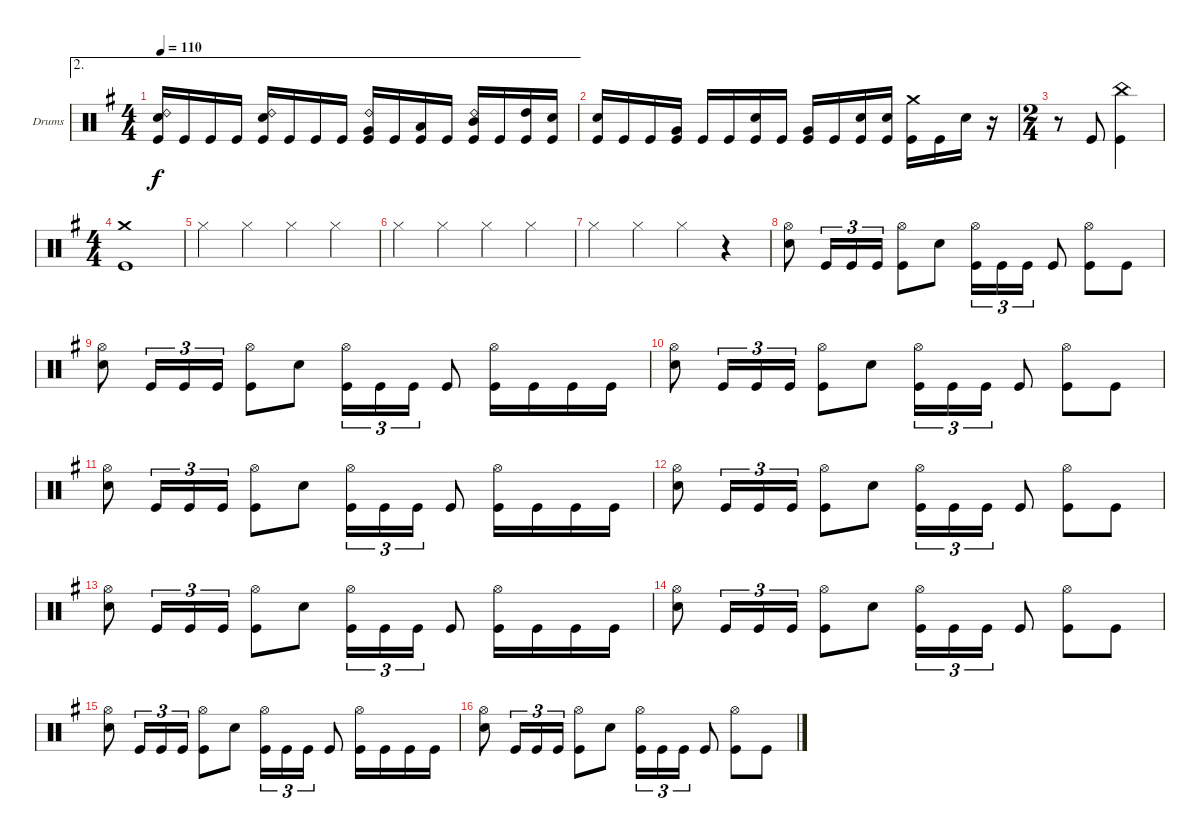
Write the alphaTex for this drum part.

\bracketExtendMode groupsimilarinstruments
\firstSystemTrackNameOrientation horizontal
\otherSystemsTrackNameOrientation horizontal
\track ("Drumkit" "Drums") {instrument percussion}
\staff {score}
\articulation defaults
\ae 2
\ts (4 4)
\tempo 110
\clef neutral
\ks g
("Ride (bell) 2" "Snare (hit) 2" "Kick (hit)").16{dy f} "Kick (hit)".16 "Kick (hit)".16 "Kick (hit)".16 ("Ride (bell) 2" "Snare (hit) 2" "Kick (hit)").16 "Kick (hit)".16 "Kick (hit)".16 "Kick (hit)".16 ("Ride (bell) 2" "Very Low Tom (hit)" "Kick (hit)").16 "Kick (hit)".16 ("Low Tom (hit)" "Kick (hit)").16 "Kick (hit)".16 ("Ride (bell) 2" "Mid Tom (hit)" "Kick (hit)").16 "Kick (hit)".16 ("High Tom (hit)" "Kick (hit)").16 ("Snare (hit) 2" "Kick (hit)").16 |
("Snare (hit) 2" "Kick (hit)").16 "Kick (hit)".16 "Kick (hit)".16 ("Very Low Tom (hit)" "Kick (hit)").16 "Kick (hit)".16 "Kick (hit)".16 ("Snare (hit) 2" "Kick (hit)").16 "Kick (hit)".16 ("Very Low Tom (hit)" "Kick (hit)").16 "Kick (hit)".16 ("Snare (hit) 2" "Kick (hit)").16 ("Snare (hit) 2" "Kick (hit)").16 ("Crash medium (hit)" "Kick (hit)").16 "Kick (hit)".16 "Snare (hit) 2".16 r.16 |
\ts (2 4)
\beaming (8 2 2)
r.8 "Kick (hit)".8 ("China (hit)" "Kick (hit)").4 |
\ts (4 4)
\beaming (8 2 2 2 2)
("Crash medium (hit)" "Kick (hit)").1 |
"Hi-Hat (closed)".4 "Hi-Hat (closed)".4 "Hi-Hat (closed)".4 "Hi-Hat (closed)".4 |
"Hi-Hat (closed)".4 "Hi-Hat (closed)".4 "Hi-Hat (closed)".4 "Hi-Hat (closed)".4 |
"Hi-Hat (closed)".4 "Hi-Hat (closed)".4 "Hi-Hat (closed)".4 r.4 |
("Hi-Hat (open)" "Snare (hit) 2").8 "Kick (hit)".16{tu (3 2)} "Kick (hit)".16{tu (3 2)} "Kick (hit)".16{tu (3 2)} ("Hi-Hat (open)" "Kick (hit)").8 "Snare (hit) 2".8 ("Hi-Hat (open)" "Kick (hit)").16{tu (3 2)} "Kick (hit)".16{tu (3 2)} "Kick (hit)".16{tu (3 2)} "Kick (hit)".8 ("Hi-Hat (open)" "Kick (hit)").8 "Kick (hit)".8 |
("Hi-Hat (open)" "Snare (hit) 2").8 "Kick (hit)".16{tu (3 2)} "Kick (hit)".16{tu (3 2)} "Kick (hit)".16{tu (3 2)} ("Hi-Hat (open)" "Kick (hit)").8 "Snare (hit) 2".8 ("Hi-Hat (open)" "Kick (hit)").16{tu (3 2)} "Kick (hit)".16{tu (3 2)} "Kick (hit)".16{tu (3 2)} "Kick (hit)".8 ("Hi-Hat (open)" "Kick (hit)").16 "Kick (hit)".16 "Kick (hit)".16 "Kick (hit)".16 |
("Hi-Hat (open)" "Snare (hit) 2").8 "Kick (hit)".16{tu (3 2)} "Kick (hit)".16{tu (3 2)} "Kick (hit)".16{tu (3 2)} ("Hi-Hat (open)" "Kick (hit)").8 "Snare (hit) 2".8 ("Hi-Hat (open)" "Kick (hit)").16{tu (3 2)} "Kick (hit)".16{tu (3 2)} "Kick (hit)".16{tu (3 2)} "Kick (hit)".8 ("Hi-Hat (open)" "Kick (hit)").8 "Kick (hit)".8 |
("Hi-Hat (open)" "Snare (hit) 2").8 "Kick (hit)".16{tu (3 2)} "Kick (hit)".16{tu (3 2)} "Kick (hit)".16{tu (3 2)} ("Hi-Hat (open)" "Kick (hit)").8 "Snare (hit) 2".8 ("Hi-Hat (open)" "Kick (hit)").16{tu (3 2)} "Kick (hit)".16{tu (3 2)} "Kick (hit)".16{tu (3 2)} "Kick (hit)".8 ("Hi-Hat (open)" "Kick (hit)").16 "Kick (hit)".16 "Kick (hit)".16 "Kick (hit)".16 |
("Hi-Hat (open)" "Snare (hit) 2").8 "Kick (hit)".16{tu (3 2)} "Kick (hit)".16{tu (3 2)} "Kick (hit)".16{tu (3 2)} ("Hi-Hat (open)" "Kick (hit)").8 "Snare (hit) 2".8 ("Hi-Hat (open)" "Kick (hit)").16{tu (3 2)} "Kick (hit)".16{tu (3 2)} "Kick (hit)".16{tu (3 2)} "Kick (hit)".8 ("Hi-Hat (open)" "Kick (hit)").8 "Kick (hit)".8 |
("Hi-Hat (open)" "Snare (hit) 2").8 "Kick (hit)".16{tu (3 2)} "Kick (hit)".16{tu (3 2)} "Kick (hit)".16{tu (3 2)} ("Hi-Hat (open)" "Kick (hit)").8 "Snare (hit) 2".8 ("Hi-Hat (open)" "Kick (hit)").16{tu (3 2)} "Kick (hit)".16{tu (3 2)} "Kick (hit)".16{tu (3 2)} "Kick (hit)".8 ("Hi-Hat (open)" "Kick (hit)").16 "Kick (hit)".16 "Kick (hit)".16 "Kick (hit)".16 |
("Hi-Hat (open)" "Snare (hit) 2").8 "Kick (hit)".16{tu (3 2)} "Kick (hit)".16{tu (3 2)} "Kick (hit)".16{tu (3 2)} ("Hi-Hat (open)" "Kick (hit)").8 "Snare (hit) 2".8 ("Hi-Hat (open)" "Kick (hit)").16{tu (3 2)} "Kick (hit)".16{tu (3 2)} "Kick (hit)".16{tu (3 2)} "Kick (hit)".8 ("Hi-Hat (open)" "Kick (hit)").8 "Kick (hit)".8 |
("Hi-Hat (open)" "Snare (hit) 2").8 "Kick (hit)".16{tu (3 2)} "Kick (hit)".16{tu (3 2)} "Kick (hit)".16{tu (3 2)} ("Hi-Hat (open)" "Kick (hit)").8 "Snare (hit) 2".8 ("Hi-Hat (open)" "Kick (hit)").16{tu (3 2)} "Kick (hit)".16{tu (3 2)} "Kick (hit)".16{tu (3 2)} "Kick (hit)".8 ("Hi-Hat (open)" "Kick (hit)").16 "Kick (hit)".16 "Kick (hit)".16 "Kick (hit)".16 |
("Hi-Hat (open)" "Snare (hit) 2").8 "Kick (hit)".16{tu (3 2)} "Kick (hit)".16{tu (3 2)} "Kick (hit)".16{tu (3 2)} ("Hi-Hat (open)" "Kick (hit)").8 "Snare (hit) 2".8 ("Hi-Hat (open)" "Kick (hit)").16{tu (3 2)} "Kick (hit)".16{tu (3 2)} "Kick (hit)".16{tu (3 2)} "Kick (hit)".8 ("Hi-Hat (open)" "Kick (hit)").8 "Kick (hit)".8
